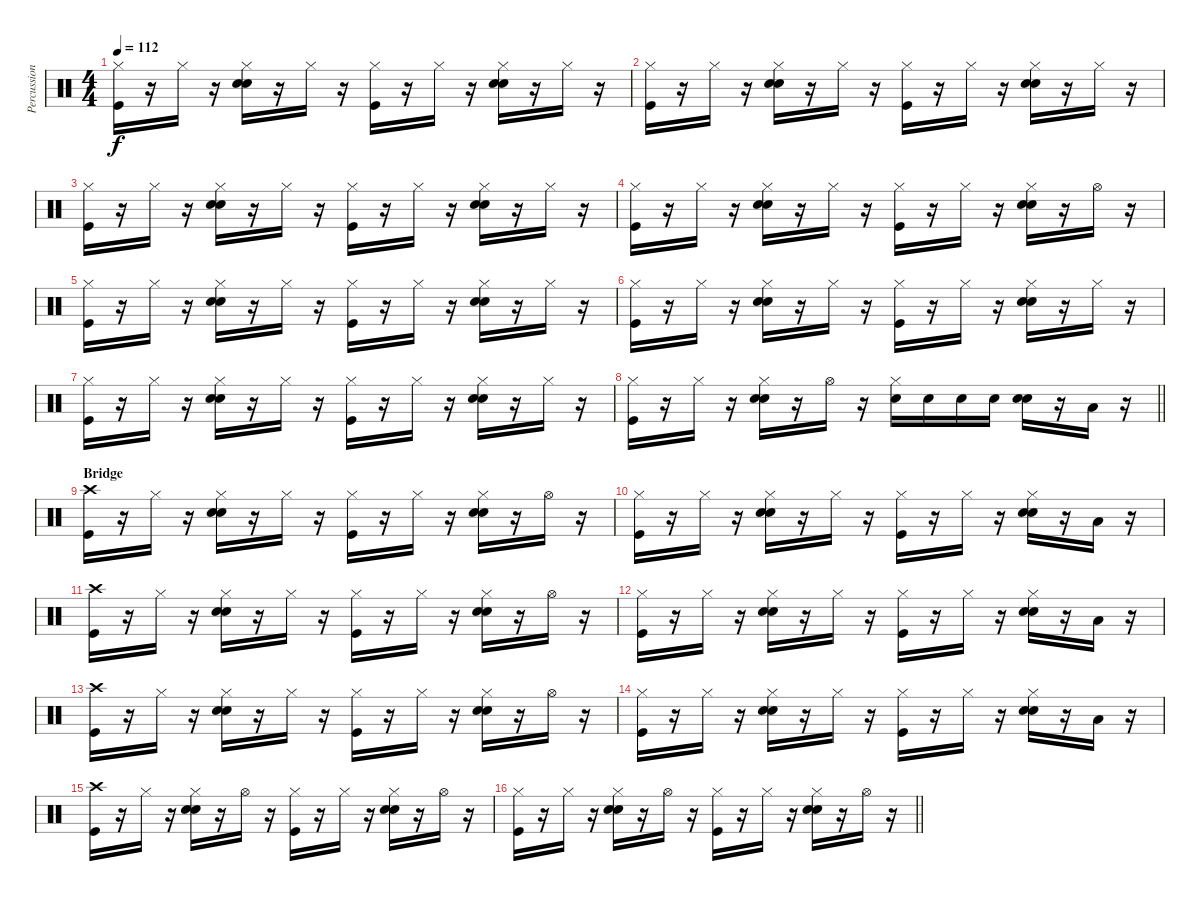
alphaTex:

\track ("Percussion" "Percussion") {instrument percussion}
\staff {score}
\articulation defaults
\ts (4 4)
\tempo 112
\clef neutral
\ks c
("Hi-Hat (closed)" "Kick (hit)").16{dy f} r.16 "Hi-Hat (closed)".16 r.16 ("Hi-Hat (closed)" "Hand Clap (hit)" "Snare (hit) 2").16 r.16 "Hi-Hat (closed)".16 r.16 ("Hi-Hat (closed)" "Kick (hit)").16 r.16 "Hi-Hat (closed)".16 r.16 ("Hi-Hat (closed)" "Hand Clap (hit)" "Snare (hit) 2").16 r.16 "Hi-Hat (closed)".16 r.16 |
("Hi-Hat (closed)" "Kick (hit)").16 r.16 "Hi-Hat (closed)".16 r.16 ("Hi-Hat (closed)" "Hand Clap (hit)" "Snare (hit) 2").16 r.16 "Hi-Hat (closed)".16 r.16 ("Hi-Hat (closed)" "Kick (hit)").16 r.16 "Hi-Hat (closed)".16 r.16 ("Hi-Hat (closed)" "Hand Clap (hit)" "Snare (hit) 2").16 r.16 "Hi-Hat (closed)".16 r.16 |
("Hi-Hat (closed)" "Kick (hit)").16 r.16 "Hi-Hat (closed)".16 r.16 ("Hi-Hat (closed)" "Hand Clap (hit)" "Snare (hit) 2").16 r.16 "Hi-Hat (closed)".16 r.16 ("Hi-Hat (closed)" "Kick (hit)").16 r.16 "Hi-Hat (closed)".16 r.16 ("Hi-Hat (closed)" "Hand Clap (hit)" "Snare (hit) 2").16 r.16 "Hi-Hat (closed)".16 r.16 |
("Hi-Hat (closed)" "Kick (hit)").16 r.16 "Hi-Hat (closed)".16 r.16 ("Hi-Hat (closed)" "Hand Clap (hit)" "Snare (hit) 2").16 r.16 "Hi-Hat (closed)".16 r.16 ("Hi-Hat (closed)" "Kick (hit)").16 r.16 "Hi-Hat (closed)".16 r.16 ("Hi-Hat (closed)" "Hand Clap (hit)" "Snare (hit) 2").16 r.16 "Hi-Hat (open)".16 r.16 |
("Hi-Hat (closed)" "Kick (hit)").16 r.16 "Hi-Hat (closed)".16 r.16 ("Hi-Hat (closed)" "Hand Clap (hit)" "Snare (hit) 2").16 r.16 "Hi-Hat (closed)".16 r.16 ("Hi-Hat (closed)" "Kick (hit)").16 r.16 "Hi-Hat (closed)".16 r.16 ("Hi-Hat (closed)" "Hand Clap (hit)" "Snare (hit) 2").16 r.16 "Hi-Hat (closed)".16 r.16 |
("Hi-Hat (closed)" "Kick (hit)").16 r.16 "Hi-Hat (closed)".16 r.16 ("Hi-Hat (closed)" "Hand Clap (hit)" "Snare (hit) 2").16 r.16 "Hi-Hat (closed)".16 r.16 ("Hi-Hat (closed)" "Kick (hit)").16 r.16 "Hi-Hat (closed)".16 r.16 ("Hi-Hat (closed)" "Hand Clap (hit)" "Snare (hit) 2").16 r.16 "Hi-Hat (closed)".16 r.16 |
("Hi-Hat (closed)" "Kick (hit)").16 r.16 "Hi-Hat (closed)".16 r.16 ("Hi-Hat (closed)" "Hand Clap (hit)" "Snare (hit) 2").16 r.16 "Hi-Hat (closed)".16 r.16 ("Hi-Hat (closed)" "Kick (hit)").16 r.16 "Hi-Hat (closed)".16 r.16 ("Hi-Hat (closed)" "Hand Clap (hit)" "Snare (hit) 2").16 r.16 "Hi-Hat (closed)".16 r.16 |
\barLineRight lightlight
("Hi-Hat (closed)" "Kick (hit)").16 r.16 "Hi-Hat (closed)".16 r.16 ("Hi-Hat (closed)" "Hand Clap (hit)" "Snare (hit) 2").16 r.16 "Hi-Hat (open)".16 r.16 ("Hi-Hat (closed)" "Snare (hit) 2").16 "Snare (hit) 2".16 "Snare (hit) 2".16 "Snare (hit) 2".16 ("Hand Clap (hit)" "Snare (hit) 2").16 r.16 "Low Tom (hit)".16 r.16 |
\section ("" "Bridge")
("Crash high (hit)" "Kick (hit)").16 r.16 "Hi-Hat (closed)".16 r.16 ("Hi-Hat (closed)" "Hand Clap (hit)" "Snare (hit) 2").16 r.16 "Hi-Hat (closed)".16 r.16 ("Hi-Hat (closed)" "Kick (hit)").16 r.16 "Hi-Hat (closed)".16 r.16 ("Hi-Hat (closed)" "Hand Clap (hit)" "Snare (hit) 2").16 r.16 "Hi-Hat (open)".16 r.16 |
("Hi-Hat (closed)" "Kick (hit)").16 r.16 "Hi-Hat (closed)".16 r.16 ("Hi-Hat (closed)" "Hand Clap (hit)" "Snare (hit) 2").16 r.16 "Hi-Hat (closed)".16 r.16 ("Hi-Hat (closed)" "Kick (hit)").16 r.16 "Hi-Hat (closed)".16 r.16 ("Hi-Hat (closed)" "Hand Clap (hit)" "Snare (hit) 2").16 r.16 "Low Tom (hit)".16 r.16 |
("Crash high (hit)" "Kick (hit)").16 r.16 "Hi-Hat (closed)".16 r.16 ("Hi-Hat (closed)" "Hand Clap (hit)" "Snare (hit) 2").16 r.16 "Hi-Hat (closed)".16 r.16 ("Hi-Hat (closed)" "Kick (hit)").16 r.16 "Hi-Hat (closed)".16 r.16 ("Hi-Hat (closed)" "Hand Clap (hit)" "Snare (hit) 2").16 r.16 "Hi-Hat (open)".16 r.16 |
("Hi-Hat (closed)" "Kick (hit)").16 r.16 "Hi-Hat (closed)".16 r.16 ("Hi-Hat (closed)" "Hand Clap (hit)" "Snare (hit) 2").16 r.16 "Hi-Hat (closed)".16 r.16 ("Hi-Hat (closed)" "Kick (hit)").16 r.16 "Hi-Hat (closed)".16 r.16 ("Hi-Hat (closed)" "Hand Clap (hit)" "Snare (hit) 2").16 r.16 "Low Tom (hit)".16 r.16 |
("Crash high (hit)" "Kick (hit)").16 r.16 "Hi-Hat (closed)".16 r.16 ("Hi-Hat (closed)" "Hand Clap (hit)" "Snare (hit) 2").16 r.16 "Hi-Hat (closed)".16 r.16 ("Hi-Hat (closed)" "Kick (hit)").16 r.16 "Hi-Hat (closed)".16 r.16 ("Hi-Hat (closed)" "Hand Clap (hit)" "Snare (hit) 2").16 r.16 "Hi-Hat (open)".16 r.16 |
("Hi-Hat (closed)" "Kick (hit)").16 r.16 "Hi-Hat (closed)".16 r.16 ("Hi-Hat (closed)" "Hand Clap (hit)" "Snare (hit) 2").16 r.16 "Hi-Hat (closed)".16 r.16 ("Hi-Hat (closed)" "Kick (hit)").16 r.16 "Hi-Hat (closed)".16 r.16 ("Hi-Hat (closed)" "Hand Clap (hit)" "Snare (hit) 2").16 r.16 "Low Tom (hit)".16 r.16 |
("Crash high (hit)" "Kick (hit)").16 r.16 "Hi-Hat (closed)".16 r.16 ("Hi-Hat (closed)" "Hand Clap (hit)" "Snare (hit) 2").16 r.16 "Hi-Hat (open)".16 r.16 ("Hi-Hat (closed)" "Kick (hit)").16 r.16 "Hi-Hat (closed)".16 r.16 ("Hi-Hat (closed)" "Hand Clap (hit)" "Snare (hit) 2").16 r.16 "Hi-Hat (open)".16 r.16 |
\barLineRight lightlight
("Hi-Hat (closed)" "Kick (hit)").16 r.16 "Hi-Hat (closed)".16 r.16 ("Hi-Hat (closed)" "Hand Clap (hit)" "Snare (hit) 2").16 r.16 "Hi-Hat (open)".16 r.16 ("Hi-Hat (closed)" "Kick (hit)").16 r.16 "Hi-Hat (closed)".16 r.16 ("Hi-Hat (closed)" "Hand Clap (hit)" "Snare (hit) 2").16 r.16 "Hi-Hat (open)".16 r.16
